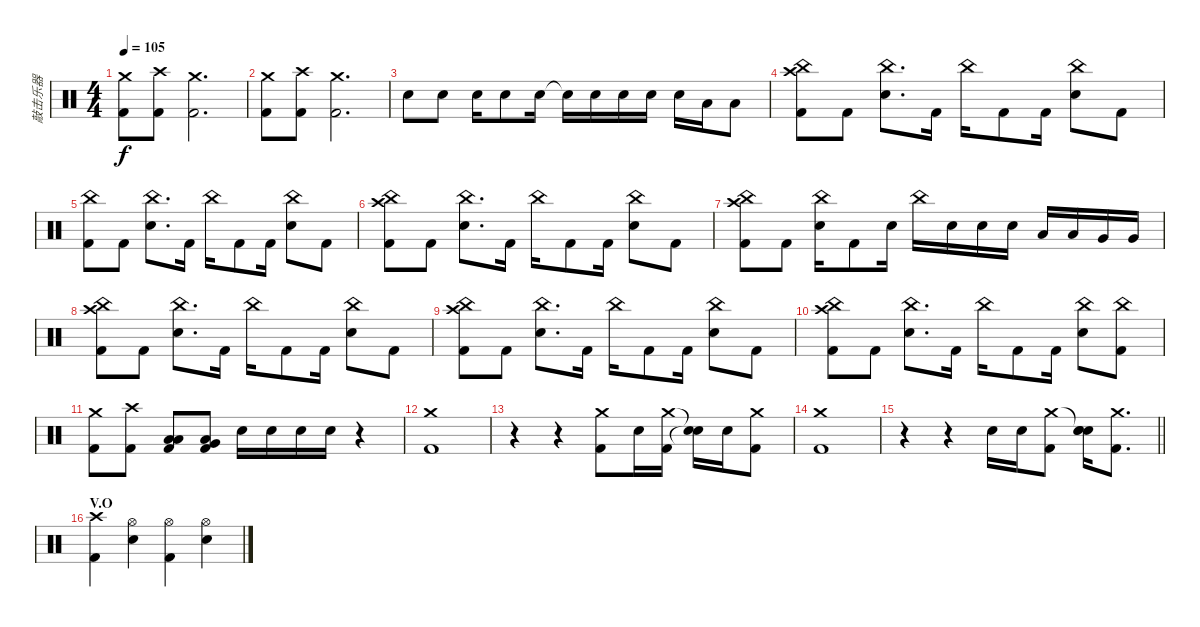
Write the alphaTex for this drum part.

\track ("敲击乐器" "敲击乐器") {instrument percussion}
\staff {score}
\articulation defaults
\ts (4 4)
\tempo 105
\clef neutral
\ks c
("Crash medium (hit)" "Kick (hit) 2").8{dy f} ("Crash high (hit)" "Kick (hit) 2").8 ("Crash medium (hit)" "Kick (hit) 2").2{d} |
("Crash medium (hit)" "Kick (hit) 2").8 ("Crash high (hit)" "Kick (hit) 2").8 ("Crash medium (hit)" "Kick (hit) 2").2{d} |
"Electric Snare (hit)".8 "Electric Snare (hit)".8 "Electric Snare (hit)".16 "Electric Snare (hit)".8 "Electric Snare (hit)".16 "Snare (hit)"{t}.16 "Electric Snare (hit)".16 "Electric Snare (hit)".16 "Electric Snare (hit)".16 "Electric Snare (hit)".16 "Low Tom (hit)".16 "Low Floor Tom (hit)".8 |
("Crash high (hit)" "China (hit)" "Kick (hit) 2").8 "Kick (hit) 2".8 ("China (hit)" "Electric Snare (hit)").8{d} "Kick (hit) 2".16 "China (hit)".16 "Kick (hit) 2".8 "Kick (hit) 2".16 ("China (hit)" "Electric Snare (hit)").8 "Kick (hit) 2".8 |
("China (hit)" "Kick (hit) 2").8 "Kick (hit) 2".8 ("China (hit)" "Electric Snare (hit)").8{d} "Kick (hit) 2".16 "China (hit)".16 "Kick (hit) 2".8 "Kick (hit) 2".16 ("China (hit)" "Electric Snare (hit)").8 "Kick (hit) 2".8 |
("Crash high (hit)" "China (hit)" "Kick (hit) 2").8 "Kick (hit) 2".8 ("China (hit)" "Electric Snare (hit)").8{d} "Kick (hit) 2".16 "China (hit)".16 "Kick (hit) 2".8 "Kick (hit) 2".16 ("China (hit)" "Electric Snare (hit)").8 "Kick (hit) 2".8 |
("Crash high (hit)" "China (hit)" "Kick (hit) 2").8 "Kick (hit) 2".8 ("China (hit)" "Electric Snare (hit)").16 "Kick (hit) 2".8 "Electric Snare (hit)".16 "China (hit)".16 "Electric Snare (hit)".16 "Electric Snare (hit)".16 "Electric Snare (hit)".16 "Low Tom (hit)".16 "Low Tom (hit)".16 "Very Low Tom (hit)".16 "Very Low Tom (hit)".16 |
("Crash high (hit)" "China (hit)" "Kick (hit) 2").8 "Kick (hit) 2".8 ("China (hit)" "Electric Snare (hit)").8{d} "Kick (hit) 2".16 "China (hit)".16 "Kick (hit) 2".8 "Kick (hit) 2".16 ("China (hit)" "Electric Snare (hit)").8 "Kick (hit) 2".8 |
("Crash high (hit)" "China (hit)" "Kick (hit) 2").8 "Kick (hit) 2".8 ("China (hit)" "Electric Snare (hit)").8{d} "Kick (hit) 2".16 "China (hit)".16 "Kick (hit) 2".8 "Kick (hit) 2".16 ("China (hit)" "Electric Snare (hit)").8 "Kick (hit) 2".8 |
("Crash high (hit)" "China (hit)" "Kick (hit) 2").8 "Kick (hit) 2".8 ("China (hit)" "Electric Snare (hit)").8{d} "Kick (hit) 2".16 "China (hit)".16 "Kick (hit) 2".8 "Kick (hit) 2".16 ("China (hit)" "Electric Snare (hit)").8 ("China (hit)" "Kick (hit) 2").8 |
("Crash medium (hit)" "Kick (hit) 2").8 ("Crash high (hit)" "Kick (hit) 2").8 ("Low Tom (hit)" "Low Floor Tom (hit)" "Kick (hit) 2").8 ("Very Low Tom (hit)" "Low Floor Tom (hit)" "Kick (hit) 2").8 "Electric Snare (hit)".16 "Electric Snare (hit)".16 "Electric Snare (hit)".16 "Electric Snare (hit)".16 r.4 |
("Crash medium (hit)" "Kick (hit) 2").1 |
r.4 r.4 ("Crash medium (hit)" "Kick (hit) 2").8 "Electric Snare (hit)".16 ("Crash medium (hit)" "Kick (hit) 2").16 ("Snare (hit)"{t} "Snare (hit)"{t}).16 "Electric Snare (hit)".16 ("Crash medium (hit)" "Kick (hit) 2").8 |
("Crash medium (hit)" "Kick (hit) 2").1 |
\barLineRight lightlight
r.4 r.4 "Electric Snare (hit)".16 "Electric Snare (hit)".16 ("Crash medium (hit)" "Kick (hit) 2").8 ("Snare (hit)"{t} "Electric Snare (hit)" "Snare (hit)").16 ("Crash medium (hit)" "Kick (hit) 2").8{d} |
\section ("" "V.O")
("Crash high (hit)" "Kick (hit) 2").4 ("Hi-Hat (open)" "Electric Snare (hit)").4 ("Hi-Hat (open)" "Kick (hit) 2").4 ("Hi-Hat (open)" "Electric Snare (hit)").4
